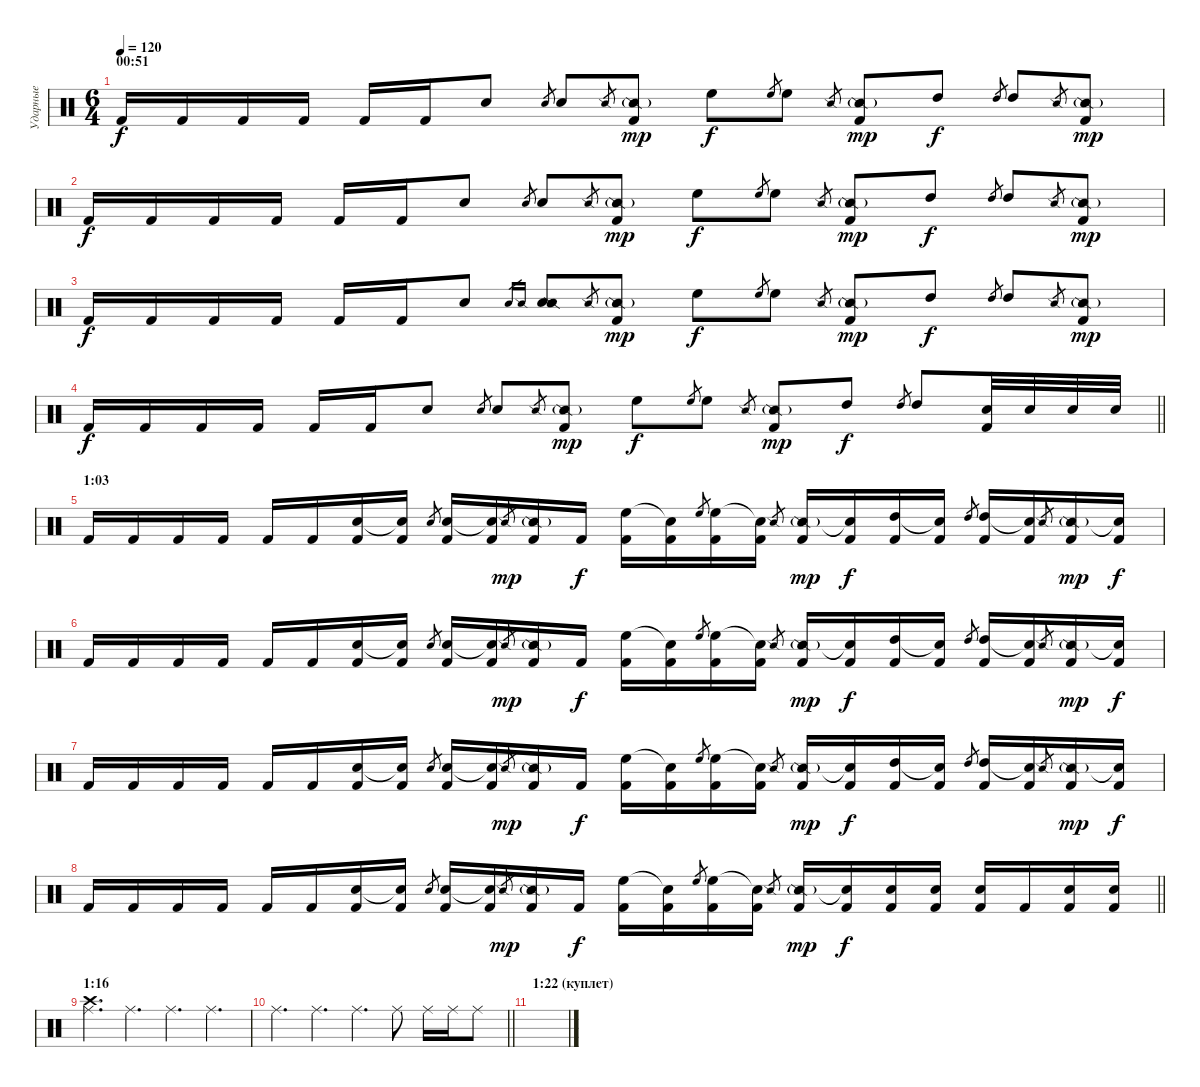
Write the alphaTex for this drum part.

\track ("Ударные" "Ударные") {instrument percussion}
\staff {score}
\articulation defaults
\ts (6 4)
\section ("" "00:51")
\tempo 120
\clef neutral
\ks c "Kick (hit) 2".16{dy f} "Kick (hit) 2".16 "Kick (hit) 2".16 "Kick (hit) 2".16 "Kick (hit) 2".16 "Kick (hit) 2".16 "Electric Snare (hit)".8 "Electric Snare (hit)".8{gr} "Electric Snare (hit)".8 "Snare (side stick) 2".8{gr}
("Kick (hit) 2" "Snare (side stick) 2"{g}).8{dy mp} "High Floor Tom (hit)".8{dy f} "High Floor Tom (hit)".8{gr} "High Floor Tom (hit)".8 "Snare (side stick) 2".8{gr} ("Kick (hit) 2" "Snare (side stick) 2"{g}).8{dy mp} "High Tom (hit)".8{dy f} "High Tom (hit)".8{gr} "High Tom (hit)".8 "Snare (side stick) 2".8{gr} ("Kick (hit) 2" "Snare (side stick) 2"{g}).8{dy mp} |
"Kick (hit) 2".16{dy f} "Kick (hit) 2".16 "Kick (hit) 2".16 "Kick (hit) 2".16 "Kick (hit) 2".16 "Kick (hit) 2".16 "Electric Snare (hit)".8 "Electric Snare (hit)".8{gr} "Electric Snare (hit)".8 "Snare (side stick) 2".8{gr} ("Kick (hit) 2" "Snare (side stick) 2"{g}).8{dy mp} "High Floor Tom (hit)".8{dy f} "High Floor Tom (hit)".8{gr} "High Floor Tom (hit)".8 "Snare (side stick) 2".8{gr} ("Kick (hit) 2" "Snare (side stick) 2"{g}).8{dy mp} "High Tom (hit)".8{dy f} "High Tom (hit)".8{gr} "High Tom (hit)".8 "Snare (side stick) 2".8{gr} ("Kick (hit) 2" "Snare (side stick) 2"{g}).8{dy mp} |
"Kick (hit) 2".16{dy f} "Kick (hit) 2".16 "Kick (hit) 2".16 "Kick (hit) 2".16 "Kick (hit) 2".16 "Kick (hit) 2".16 "Electric Snare (hit)".8 "Electric Snare (hit)".16{gr} "Snare (side stick) 2".16{gr} ("Electric Snare (hit)" "Snare (side stick) 2").8 "Snare (side stick) 2".8{gr} ("Kick (hit) 2" "Snare (side stick) 2"{g}).8{dy mp} "High Floor Tom (hit)".8{dy f} "High Floor Tom (hit)".8{gr} "High Floor Tom (hit)".8 "Snare (side stick) 2".8{gr} ("Kick (hit) 2" "Snare (side stick) 2"{g}).8{dy mp} "High Tom (hit)".8{dy f} "High Tom (hit)".8{gr} "High Tom (hit)".8 "Snare (side stick) 2".8{gr} ("Kick (hit) 2" "Snare (side stick) 2"{g}).8{dy mp} |
\barLineRight lightlight "Kick (hit) 2".16{dy f} "Kick (hit) 2".16 "Kick (hit) 2".16 "Kick (hit) 2".16 "Kick (hit) 2".16 "Kick (hit) 2".16 "Electric Snare (hit)".8 "Electric Snare (hit)".8{gr} "Electric Snare (hit)".8 "Snare (side stick) 2".8{gr}
("Kick (hit) 2" "Snare (side stick) 2"{g}).8{dy mp} "High Floor Tom (hit)".8{dy f} "High Floor Tom (hit)".8{gr} "High Floor Tom (hit)".8 "Snare (side stick) 2".8{gr} ("Kick (hit) 2" "Snare (side stick) 2"{g}).8{dy mp} "High Tom (hit)".8{dy f} "High Tom (hit)".8{gr} "High Tom (hit)".8 ("Kick (hit) 2" "Electric Snare (hit)").32 "Electric Snare (hit)".32 "Electric Snare (hit)".32 "Electric Snare (hit)".32 |
\section ("" "1:03")
"Kick (hit) 2".16 "Kick (hit) 2".16 "Kick (hit) 2".16 "Kick (hit) 2".16 "Kick (hit) 2".16 "Kick (hit) 2".16 ("Kick (hit) 2" "Electric Snare (hit)").16 ("Kick (hit) 2" "Snare (hit)"{t}).16 "Electric Snare (hit)".8{gr} ("Kick (hit) 2" "Electric Snare (hit)").16 ("Kick (hit) 2" "Snare (hit)"{t}).16 "Snare (side stick) 2".8{gr dy mp} ("Kick (hit) 2" "Snare (side stick) 2"{g}).16 "Kick (hit) 2".16{dy f} ("Kick (hit) 2" "High Floor Tom (hit)").16 ("Kick (hit) 2" "Snare (hit)"{t}).16 "High Floor Tom (hit)".8{gr} ("Kick (hit) 2" "High Floor Tom (hit)").16 ("Kick (hit) 2" "Snare (hit)"{t}).16 "Snare (side stick) 2".8{gr} ("Kick (hit) 2" "Snare (side stick) 2"{g}).16{dy mp} ("Kick (hit) 2" "Snare (hit)"{t}).16{dy f} ("Kick (hit) 2" "High Tom (hit)").16 ("Kick (hit) 2" "Snare (hit)"{t}).16 "High Tom (hit)".8{gr} ("Kick (hit) 2" "High Tom (hit)").16 ("Kick (hit) 2" "Snare (hit)"{t}).16 "Snare (side stick) 2".8{gr} ("Kick (hit) 2" "Snare (side stick) 2"{g}).16{dy mp} ("Kick (hit) 2" "Snare (hit)"{t}).16{dy f} |
"Kick (hit) 2".16 "Kick (hit) 2".16 "Kick (hit) 2".16 "Kick (hit) 2".16 "Kick (hit) 2".16 "Kick (hit) 2".16 ("Kick (hit) 2" "Electric Snare (hit)").16 ("Kick (hit) 2" "Snare (hit)"{t}).16 "Electric Snare (hit)".8{gr} ("Kick (hit) 2" "Electric Snare (hit)").16 ("Kick (hit) 2" "Snare (hit)"{t}).16 "Snare (side stick) 2".8{gr dy mp} ("Kick (hit) 2" "Snare (side stick) 2"{g}).16 "Kick (hit) 2".16{dy f} ("Kick (hit) 2" "High Floor Tom (hit)").16 ("Kick (hit) 2" "Snare (hit)"{t}).16 "High Floor Tom (hit)".8{gr} ("Kick (hit) 2" "High Floor Tom (hit)").16 ("Kick (hit) 2" "Snare (hit)"{t}).16 "Snare (side stick) 2".8{gr} ("Kick (hit) 2" "Snare (side stick) 2"{g}).16{dy mp} ("Kick (hit) 2" "Snare (hit)"{t}).16{dy f} ("Kick (hit) 2" "High Tom (hit)").16 ("Kick (hit) 2" "Snare (hit)"{t}).16 "High Tom (hit)".8{gr} ("Kick (hit) 2" "High Tom (hit)").16 ("Kick (hit) 2" "Snare (hit)"{t}).16 "Snare (side stick) 2".8{gr} ("Kick (hit) 2" "Snare (side stick) 2"{g}).16{dy mp} ("Kick (hit) 2" "Snare (hit)"{t}).16{dy f} |
"Kick (hit) 2".16 "Kick (hit) 2".16 "Kick (hit) 2".16 "Kick (hit) 2".16 "Kick (hit) 2".16 "Kick (hit) 2".16 ("Kick (hit) 2" "Electric Snare (hit)").16 ("Kick (hit) 2" "Snare (hit)"{t}).16 "Electric Snare (hit)".8{gr} ("Kick (hit) 2" "Electric Snare (hit)").16 ("Kick (hit) 2" "Snare (hit)"{t}).16 "Snare (side stick) 2".8{gr dy mp} ("Kick (hit) 2" "Snare (side stick) 2"{g}).16 "Kick (hit) 2".16{dy f} ("Kick (hit) 2" "High Floor Tom (hit)").16 ("Kick (hit) 2" "Snare (hit)"{t}).16 "High Floor Tom (hit)".8{gr} ("Kick (hit) 2" "High Floor Tom (hit)").16 ("Kick (hit) 2" "Snare (hit)"{t}).16 "Snare (side stick) 2".8{gr} ("Kick (hit) 2" "Snare (side stick) 2"{g}).16{dy mp} ("Kick (hit) 2" "Snare (hit)"{t}).16{dy f} ("Kick (hit) 2" "High Tom (hit)").16 ("Kick (hit) 2" "Snare (hit)"{t}).16 "High Tom (hit)".8{gr} ("Kick (hit) 2" "High Tom (hit)").16 ("Kick (hit) 2" "Snare (hit)"{t}).16 "Snare (side stick) 2".8{gr} ("Kick (hit) 2" "Snare (side stick) 2"{g}).16{dy mp} ("Kick (hit) 2" "Snare (hit)"{t}).16{dy f} |
\barLineRight lightlight "Kick (hit) 2".16 "Kick (hit) 2".16 "Kick (hit) 2".16 "Kick (hit) 2".16 "Kick (hit) 2".16 "Kick (hit) 2".16
("Kick (hit) 2" "Electric Snare (hit)").16 ("Kick (hit) 2" "Snare (hit)"{t}).16 "Electric Snare (hit)".8{gr} ("Kick (hit) 2" "Electric Snare (hit)").16 ("Kick (hit) 2" "Snare (hit)"{t}).16 "Snare (side stick) 2".8{gr dy mp} ("Kick (hit) 2" "Snare (side stick) 2"{g}).16 "Kick (hit) 2".16{dy f} ("Kick (hit) 2" "High Floor Tom (hit)").16 ("Kick (hit) 2" "Snare (hit)"{t}).16 "High Floor Tom (hit)".8{gr} ("Kick (hit) 2" "High Floor Tom (hit)").16 ("Kick (hit) 2" "Snare (hit)"{t}).16 "Snare (side stick) 2".8{gr} ("Kick (hit) 2" "Snare (side stick) 2"{g}).16{dy mp} ("Kick (hit) 2" "Snare (hit)"{t}).16{dy f} ("Kick (hit) 2" "Electric Snare (hit)").16 ("Kick (hit) 2" "Electric Snare (hit)").16 ("Kick (hit) 2" "Electric Snare (hit)").16 "Kick (hit) 2".16 ("Kick (hit) 2" "Electric Snare (hit)").16 ("Kick (hit) 2" "Electric Snare (hit)").16 |
\section ("" "1:16")
("Crash high (hit)" "Ride (middle)").4{d} "Ride (middle)".4{d} "Ride (middle)".4{d} "Ride (middle)".4{d} |
\barLineRight lightlight "Ride (middle)".4{d} "Ride (middle)".4{d} "Ride (middle)".4{d} "Ride (middle)".8 "Ride (middle)".16 "Ride (middle)".16 "Ride (middle)".8
|
\section ("" "1:22 (куплет)")
